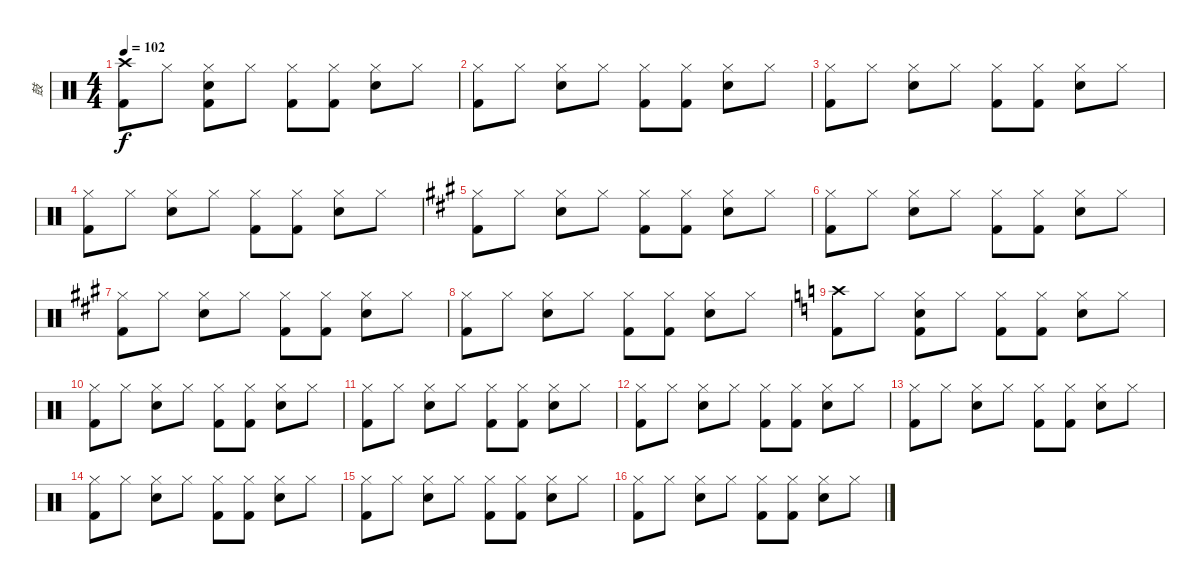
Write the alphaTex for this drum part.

\track ("鼓" "鼓") {instrument percussion}
\staff {score}
\articulation defaults
\ts (4 4)
\tempo 102
\clef neutral
\ks c
("Crash high (hit)" "Kick (hit) 2").8{dy f} "Hi-Hat (closed)".8 ("Hi-Hat (closed)" "Electric Snare (hit)" "Kick (hit) 2").8 "Hi-Hat (closed)".8 ("Hi-Hat (closed)" "Kick (hit) 2").8 ("Hi-Hat (closed)" "Kick (hit) 2").8 ("Hi-Hat (closed)" "Electric Snare (hit)").8 "Hi-Hat (closed)".8 |
("Hi-Hat (closed)" "Kick (hit) 2").8 "Hi-Hat (closed)".8 ("Hi-Hat (closed)" "Electric Snare (hit)").8 "Hi-Hat (closed)".8 ("Hi-Hat (closed)" "Kick (hit) 2").8 ("Hi-Hat (closed)" "Kick (hit) 2").8 ("Hi-Hat (closed)" "Electric Snare (hit)").8 "Hi-Hat (closed)".8 |
("Hi-Hat (closed)" "Kick (hit) 2").8 "Hi-Hat (closed)".8 ("Hi-Hat (closed)" "Electric Snare (hit)").8 "Hi-Hat (closed)".8 ("Hi-Hat (closed)" "Kick (hit) 2").8 ("Hi-Hat (closed)" "Kick (hit) 2").8 ("Hi-Hat (closed)" "Electric Snare (hit)").8 "Hi-Hat (closed)".8 |
("Hi-Hat (closed)" "Kick (hit) 2").8 "Hi-Hat (closed)".8 ("Hi-Hat (closed)" "Electric Snare (hit)").8 "Hi-Hat (closed)".8 ("Hi-Hat (closed)" "Kick (hit) 2").8 ("Hi-Hat (closed)" "Kick (hit) 2").8 ("Hi-Hat (closed)" "Electric Snare (hit)").8 "Hi-Hat (closed)".8 |
\ks a
("Hi-Hat (closed)" "Kick (hit) 2").8 "Hi-Hat (closed)".8 ("Hi-Hat (closed)" "Electric Snare (hit)").8 "Hi-Hat (closed)".8 ("Hi-Hat (closed)" "Kick (hit) 2").8 ("Hi-Hat (closed)" "Kick (hit) 2").8 ("Hi-Hat (closed)" "Electric Snare (hit)").8 "Hi-Hat (closed)".8 |
("Hi-Hat (closed)" "Kick (hit) 2").8 "Hi-Hat (closed)".8 ("Hi-Hat (closed)" "Electric Snare (hit)").8 "Hi-Hat (closed)".8 ("Hi-Hat (closed)" "Kick (hit) 2").8 ("Hi-Hat (closed)" "Kick (hit) 2").8 ("Hi-Hat (closed)" "Electric Snare (hit)").8 "Hi-Hat (closed)".8 |
("Hi-Hat (closed)" "Kick (hit) 2").8 "Hi-Hat (closed)".8 ("Hi-Hat (closed)" "Electric Snare (hit)").8 "Hi-Hat (closed)".8 ("Hi-Hat (closed)" "Kick (hit) 2").8 ("Hi-Hat (closed)" "Kick (hit) 2").8 ("Hi-Hat (closed)" "Electric Snare (hit)").8 "Hi-Hat (closed)".8 |
("Hi-Hat (closed)" "Kick (hit) 2").8 "Hi-Hat (closed)".8 ("Hi-Hat (closed)" "Electric Snare (hit)").8 "Hi-Hat (closed)".8 ("Hi-Hat (closed)" "Kick (hit) 2").8 ("Hi-Hat (closed)" "Kick (hit) 2").8 ("Hi-Hat (closed)" "Electric Snare (hit)").8 "Hi-Hat (closed)".8 |
\ks c
("Crash high (hit)" "Kick (hit) 2").8 "Hi-Hat (closed)".8 ("Hi-Hat (closed)" "Electric Snare (hit)" "Kick (hit) 2").8 "Hi-Hat (closed)".8 ("Hi-Hat (closed)" "Kick (hit) 2").8 ("Hi-Hat (closed)" "Kick (hit) 2").8 ("Hi-Hat (closed)" "Electric Snare (hit)").8 "Hi-Hat (closed)".8 |
("Hi-Hat (closed)" "Kick (hit) 2").8 "Hi-Hat (closed)".8 ("Hi-Hat (closed)" "Electric Snare (hit)").8 "Hi-Hat (closed)".8 ("Hi-Hat (closed)" "Kick (hit) 2").8 ("Hi-Hat (closed)" "Kick (hit) 2").8 ("Hi-Hat (closed)" "Electric Snare (hit)").8 "Hi-Hat (closed)".8 |
("Hi-Hat (closed)" "Kick (hit) 2").8 "Hi-Hat (closed)".8 ("Hi-Hat (closed)" "Electric Snare (hit)").8 "Hi-Hat (closed)".8 ("Hi-Hat (closed)" "Kick (hit) 2").8 ("Hi-Hat (closed)" "Kick (hit) 2").8 ("Hi-Hat (closed)" "Electric Snare (hit)").8 "Hi-Hat (closed)".8 |
("Hi-Hat (closed)" "Kick (hit) 2").8 "Hi-Hat (closed)".8 ("Hi-Hat (closed)" "Electric Snare (hit)").8 "Hi-Hat (closed)".8 ("Hi-Hat (closed)" "Kick (hit) 2").8 ("Hi-Hat (closed)" "Kick (hit) 2").8 ("Hi-Hat (closed)" "Electric Snare (hit)").8 "Hi-Hat (closed)".8 |
("Hi-Hat (closed)" "Kick (hit) 2").8 "Hi-Hat (closed)".8 ("Hi-Hat (closed)" "Electric Snare (hit)").8 "Hi-Hat (closed)".8 ("Hi-Hat (closed)" "Kick (hit) 2").8 ("Hi-Hat (closed)" "Kick (hit) 2").8 ("Hi-Hat (closed)" "Electric Snare (hit)").8 "Hi-Hat (closed)".8 |
("Hi-Hat (closed)" "Kick (hit) 2").8 "Hi-Hat (closed)".8 ("Hi-Hat (closed)" "Electric Snare (hit)").8 "Hi-Hat (closed)".8 ("Hi-Hat (closed)" "Kick (hit) 2").8 ("Hi-Hat (closed)" "Kick (hit) 2").8 ("Hi-Hat (closed)" "Electric Snare (hit)").8 "Hi-Hat (closed)".8 |
("Hi-Hat (closed)" "Kick (hit) 2").8 "Hi-Hat (closed)".8 ("Hi-Hat (closed)" "Electric Snare (hit)").8 "Hi-Hat (closed)".8 ("Hi-Hat (closed)" "Kick (hit) 2").8 ("Hi-Hat (closed)" "Kick (hit) 2").8 ("Hi-Hat (closed)" "Electric Snare (hit)").8 "Hi-Hat (closed)".8 |
("Hi-Hat (closed)" "Kick (hit) 2").8 "Hi-Hat (closed)".8 ("Hi-Hat (closed)" "Electric Snare (hit)").8 "Hi-Hat (closed)".8 ("Hi-Hat (closed)" "Kick (hit) 2").8 ("Hi-Hat (closed)" "Kick (hit) 2").8 ("Hi-Hat (closed)" "Electric Snare (hit)").8 "Hi-Hat (closed)".8
